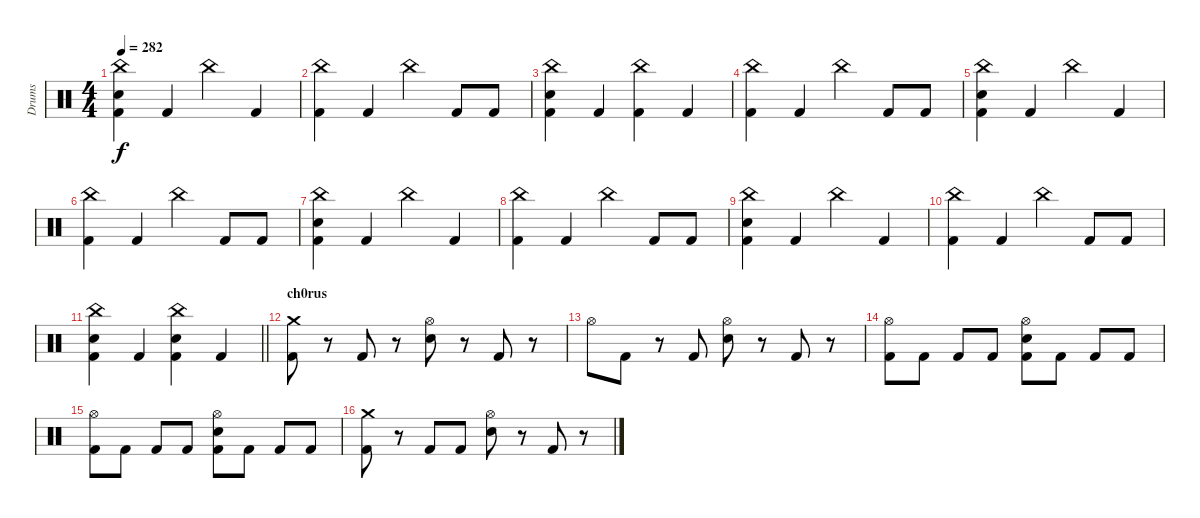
\track ("Drums" "Drums") {instrument percussion}
\staff {score}
\articulation defaults
\ts (4 4)
\tempo 282
\clef neutral
\ks c
("China (hit)" "Snare (hit) 2" "Kick (hit) 2").4{dy f} "Kick (hit) 2".4 "China (hit)".4 "Kick (hit) 2".4 |
("China (hit)" "Kick (hit) 2").4 "Kick (hit) 2".4 "China (hit)".4 "Kick (hit) 2".8 "Kick (hit) 2".8 |
("China (hit)" "Snare (hit) 2" "Kick (hit) 2").4 "Kick (hit) 2".4 ("China (hit)" "Kick (hit) 2").4 "Kick (hit) 2".4 |
("China (hit)" "Kick (hit) 2").4 "Kick (hit) 2".4 "China (hit)".4 "Kick (hit) 2".8 "Kick (hit) 2".8 |
("China (hit)" "Snare (hit) 2" "Kick (hit) 2").4 "Kick (hit) 2".4 "China (hit)".4 "Kick (hit) 2".4 |
("China (hit)" "Kick (hit) 2").4 "Kick (hit) 2".4 "China (hit)".4 "Kick (hit) 2".8 "Kick (hit) 2".8 |
("China (hit)" "Snare (hit) 2" "Kick (hit) 2").4 "Kick (hit) 2".4 "China (hit)".4 "Kick (hit) 2".4 |
("China (hit)" "Kick (hit) 2").4 "Kick (hit) 2".4 "China (hit)".4 "Kick (hit) 2".8 "Kick (hit) 2".8 |
("China (hit)" "Snare (hit) 2" "Kick (hit) 2").4 "Kick (hit) 2".4 "China (hit)".4 "Kick (hit) 2".4 |
("China (hit)" "Kick (hit) 2").4 "Kick (hit) 2".4 "China (hit)".4 "Kick (hit) 2".8 "Kick (hit) 2".8 |
\barLineRight lightlight
("China (hit)" "Snare (hit) 2" "Kick (hit) 2").4 "Kick (hit) 2".4 ("China (hit)" "Snare (hit) 2" "Kick (hit) 2").4 "Kick (hit) 2".4 |
\section ("" "ch0rus")
("Crash medium (hit)" "Kick (hit) 2").8 r.8 "Kick (hit) 2".8 r.8 ("Hi-Hat (open)" "Snare (hit) 2").8 r.8 "Kick (hit) 2".8 r.8 |
"Hi-Hat (open)".8 "Kick (hit) 2".8 r.8 "Kick (hit) 2".8 ("Hi-Hat (open)" "Snare (hit) 2").8 r.8 "Kick (hit) 2".8 r.8 |
("Hi-Hat (open)" "Kick (hit) 2").8 "Kick (hit) 2".8 "Kick (hit) 2".8 "Kick (hit) 2".8 ("Hi-Hat (open)" "Snare (hit) 2" "Kick (hit) 2").8 "Kick (hit) 2".8 "Kick (hit) 2".8 "Kick (hit) 2".8 |
("Hi-Hat (open)" "Kick (hit) 2").8 "Kick (hit) 2".8 "Kick (hit) 2".8 "Kick (hit) 2".8 ("Hi-Hat (open)" "Snare (hit) 2" "Kick (hit) 2").8 "Kick (hit) 2".8 "Kick (hit) 2".8 "Kick (hit) 2".8 |
("Crash medium (hit)" "Kick (hit) 2").8 r.8 "Kick (hit) 2".8 "Kick (hit) 2".8 ("Hi-Hat (open)" "Snare (hit) 2").8 r.8 "Kick (hit) 2".8 r.8
